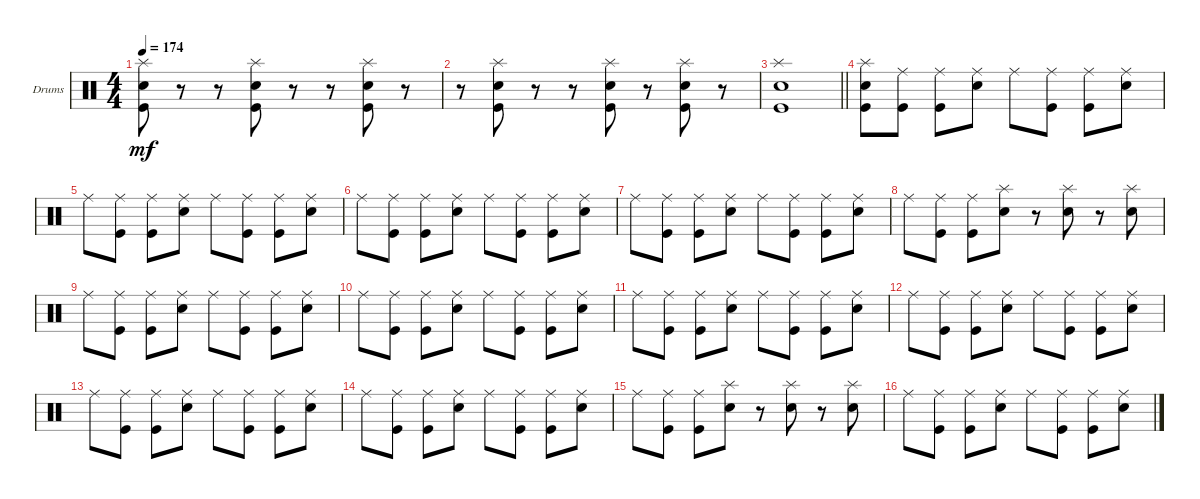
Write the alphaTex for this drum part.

\bracketExtendMode groupsimilarinstruments
\firstSystemTrackNameOrientation horizontal
\otherSystemsTrackNameOrientation horizontal
\track ("Drumkit" "Drums") {instrument percussion}
\staff {score}
\articulation defaults
\ts (4 4)
\tempo 174
\clef neutral
\scale
0.333333
\ks c
("Splash (hit)" "Snare (hit) 2" "Kick (hit)").8{dy mf} r.8 r.8 ("Splash (hit)" "Snare (hit) 2" "Kick (hit)").8 r.8 r.8 ("Splash (hit)" "Snare (hit) 2" "Kick (hit)").8 r.8 |
\scale
0.333333 r.8 ("Splash (hit)" "Snare (hit) 2" "Kick (hit)").8 r.8 r.8 ("Splash (hit)" "Snare (hit) 2" "Kick (hit)").8 r.8 ("Splash (hit)" "Snare (hit) 2" "Kick (hit)").8 r.8 |
\scale
0.333333
\barLineRight lightlight
("Splash (hit)" "Snare (hit) 2" "Kick (hit)").1 |
\scale
0.333333 ("Splash (hit)" "Snare (hit) 2" "Kick (hit)").8 ("Kick (hit)" "Ride (middle)").8 ("Kick (hit)" "Ride (middle)").8 ("Snare (hit) 2" "Ride (middle)").8 "Ride (middle)".8 ("Ride (middle)" "Kick (hit)").8 ("Kick (hit)" "Ride (middle)").8 ("Snare (hit) 2" "Ride (middle)").8 |
\scale
0.333333 "Ride (middle)".8 ("Kick (hit)" "Ride (middle)").8 ("Kick (hit)" "Ride (middle)").8 ("Snare (hit) 2" "Ride (middle)").8 "Ride (middle)".8 ("Ride (middle)" "Kick (hit)").8 ("Kick (hit)" "Ride (middle)").8 ("Snare (hit) 2" "Ride (middle)").8 |
\scale
0.333333 "Ride (middle)".8 ("Kick (hit)" "Ride (middle)").8 ("Kick (hit)" "Ride (middle)").8 ("Snare (hit) 2" "Ride (middle)").8 "Ride (middle)".8 ("Ride (middle)" "Kick (hit)").8 ("Kick (hit)" "Ride (middle)").8 ("Snare (hit) 2" "Ride (middle)").8 |
\scale
0.333333 "Ride (middle)".8 ("Kick (hit)" "Ride (middle)").8 ("Kick (hit)" "Ride (middle)").8 ("Snare (hit) 2" "Ride (middle)").8 "Ride (middle)".8 ("Ride (middle)" "Kick (hit)").8 ("Kick (hit)" "Ride (middle)").8 ("Snare (hit) 2" "Ride (middle)").8 |
\scale
0.333333 "Ride (middle)".8 ("Kick (hit)" "Ride (middle)").8 ("Kick (hit)" "Ride (middle)").8 ("Snare (hit) 2" "Splash (hit)").8 r.8 ("Snare (hit) 2" "Splash (hit)").8 r.8 ("Splash (hit)" "Snare (hit) 2").8 |
\scale
0.333333 "Ride (middle)".8 ("Kick (hit)" "Ride (middle)").8 ("Kick (hit)" "Ride (middle)").8 ("Snare (hit) 2" "Ride (middle)").8 "Ride (middle)".8 ("Ride (middle)" "Kick (hit)").8 ("Kick (hit)" "Ride (middle)").8 ("Snare (hit) 2" "Ride (middle)").8 |
\scale
0.333333 "Ride (middle)".8 ("Kick (hit)" "Ride (middle)").8 ("Kick (hit)" "Ride (middle)").8 ("Snare (hit) 2" "Ride (middle)").8 "Ride (middle)".8 ("Ride (middle)" "Kick (hit)").8 ("Kick (hit)" "Ride (middle)").8 ("Snare (hit) 2" "Ride (middle)").8 |
\scale
0.333333 "Ride (middle)".8 ("Kick (hit)" "Ride (middle)").8 ("Kick (hit)" "Ride (middle)").8 ("Snare (hit) 2" "Ride (middle)").8 "Ride (middle)".8 ("Ride (middle)" "Kick (hit)").8 ("Kick (hit)" "Ride (middle)").8 ("Snare (hit) 2" "Ride (middle)").8 |
\scale
0.333333 "Ride (middle)".8 ("Kick (hit)" "Ride (middle)").8 ("Kick (hit)" "Ride (middle)").8 ("Snare (hit) 2" "Ride (middle)").8 "Ride (middle)".8 ("Ride (middle)" "Kick (hit)").8 ("Kick (hit)" "Ride (middle)").8 ("Snare (hit) 2" "Ride (middle)").8 |
\scale
0.333333 "Ride (middle)".8 ("Kick (hit)" "Ride (middle)").8 ("Kick (hit)" "Ride (middle)").8 ("Snare (hit) 2" "Ride (middle)").8 "Ride (middle)".8 ("Ride (middle)" "Kick (hit)").8 ("Kick (hit)" "Ride (middle)").8 ("Snare (hit) 2" "Ride (middle)").8 |
\scale
0.333333 "Ride (middle)".8 ("Kick (hit)" "Ride (middle)").8 ("Kick (hit)" "Ride (middle)").8 ("Snare (hit) 2" "Ride (middle)").8 "Ride (middle)".8 ("Ride (middle)" "Kick (hit)").8 ("Kick (hit)" "Ride (middle)").8 ("Snare (hit) 2" "Ride (middle)").8 |
\scale
0.333333 "Ride (middle)".8 ("Kick (hit)" "Ride (middle)").8 ("Kick (hit)" "Ride (middle)").8 ("Snare (hit) 2" "Splash (hit)").8 r.8 ("Snare (hit) 2" "Splash (hit)").8 r.8 ("Splash (hit)" "Snare (hit) 2").8 |
\scale
0.333333 "Ride (middle)".8 ("Kick (hit)" "Ride (middle)").8 ("Kick (hit)" "Ride (middle)").8 ("Snare (hit) 2" "Ride (middle)").8 "Ride (middle)".8 ("Ride (middle)" "Kick (hit)").8 ("Kick (hit)" "Ride (middle)").8 ("Snare (hit) 2" "Ride (middle)").8
